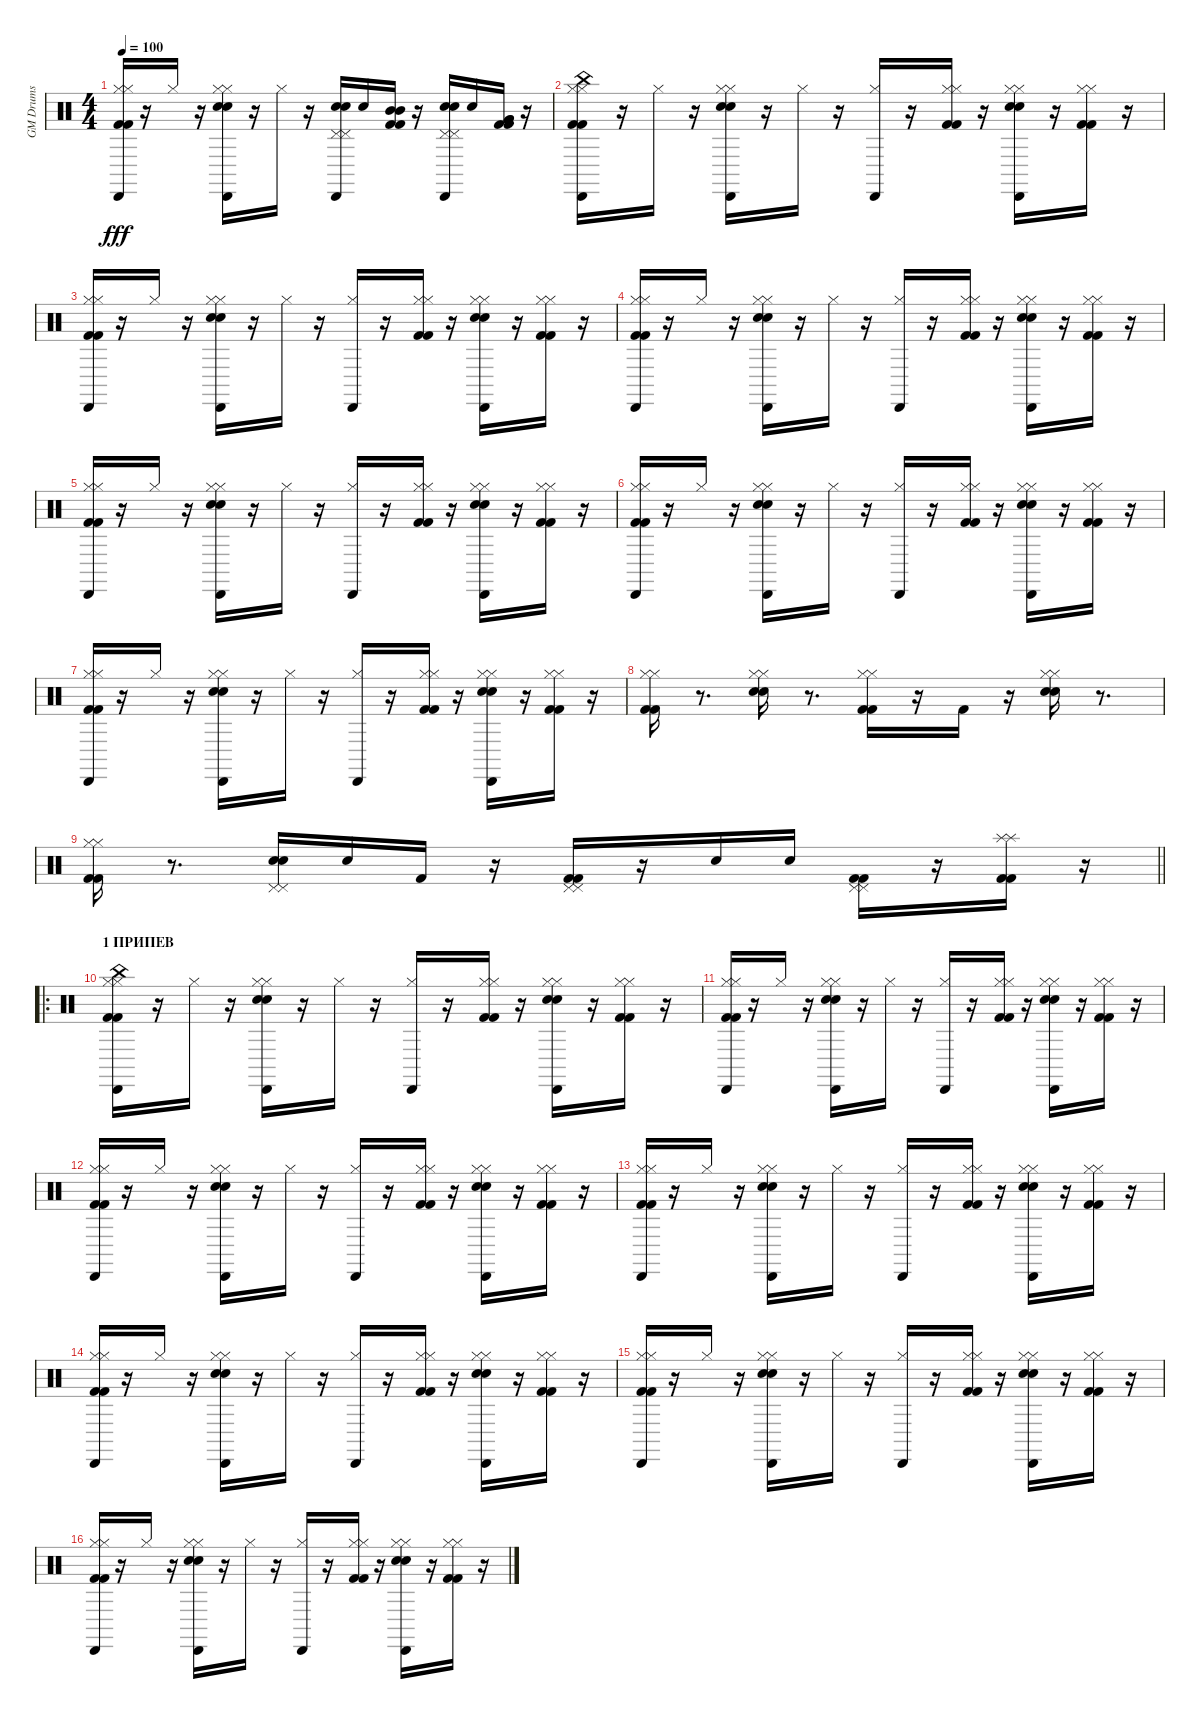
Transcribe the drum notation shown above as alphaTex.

\track ("GM Drums" "GM Drums") {instrument percussion}
\staff {score}
\articulation defaults
\ts (4 4)
\tempo 100
\clef neutral
\ks c
("Kick (hit) 2" "Kick (hit) 2" "Hi-Hat (closed)" "Hi-Hat (closed)" "Cabasa (hit)").16{dy fff} r.16 "Hi-Hat (closed)".16 r.16 ("Snare (hit) 2" "Snare (hit) 2" "Hi-Hat (closed)" "Hi-Hat (closed)" "Cabasa (hit)").16 r.16 "Hi-Hat (closed)".16 r.16 ("Snare (hit) 2" "Snare (hit) 2" "Pedal Hi-Hat (hit)" "Pedal Hi-Hat (hit)" "Cabasa (hit)").16 "Snare (hit) 2".16 ("Kick (hit) 2" "Kick (hit) 2" "Mid Tom (hit)" "Mid Tom (hit)").16 r.16 ("Snare (hit) 2" "Snare (hit) 2" "Pedal Hi-Hat (hit)" "Pedal Hi-Hat (hit)" "Cabasa (hit)").16 "Snare (hit) 2".16 ("Kick (hit) 2" "Kick (hit) 2" "Very Low Tom (hit)" "Very Low Tom (hit)").16 r.16 |
("Kick (hit) 2" "Kick (hit) 2" "Hi-Hat (closed)" "Hi-Hat (closed)" "China (hit)" "Cabasa (hit)").16 r.16 "Hi-Hat (closed)".16 r.16 ("Snare (hit) 2" "Snare (hit) 2" "Hi-Hat (closed)" "Hi-Hat (closed)" "Cabasa (hit)").16 r.16 "Hi-Hat (closed)".16 r.16 ("Hi-Hat (closed)" "Cabasa (hit)").16 r.16 ("Kick (hit) 2" "Kick (hit) 2" "Hi-Hat (closed)" "Hi-Hat (closed)").16 r.16 ("Snare (hit) 2" "Snare (hit) 2" "Hi-Hat (closed)" "Hi-Hat (closed)" "Cabasa (hit)").16 r.16 ("Kick (hit) 2" "Kick (hit) 2" "Hi-Hat (closed)" "Hi-Hat (closed)").16 r.16 |
("Kick (hit) 2" "Kick (hit) 2" "Hi-Hat (closed)" "Hi-Hat (closed)" "Cabasa (hit)").16 r.16 "Hi-Hat (closed)".16 r.16 ("Snare (hit) 2" "Snare (hit) 2" "Hi-Hat (closed)" "Hi-Hat (closed)" "Cabasa (hit)").16 r.16 "Hi-Hat (closed)".16 r.16 ("Hi-Hat (closed)" "Cabasa (hit)").16 r.16 ("Kick (hit) 2" "Kick (hit) 2" "Hi-Hat (closed)" "Hi-Hat (closed)").16 r.16 ("Snare (hit) 2" "Snare (hit) 2" "Hi-Hat (closed)" "Hi-Hat (closed)" "Cabasa (hit)").16 r.16 ("Kick (hit) 2" "Kick (hit) 2" "Hi-Hat (closed)" "Hi-Hat (closed)").16 r.16 |
("Kick (hit) 2" "Kick (hit) 2" "Hi-Hat (closed)" "Hi-Hat (closed)" "Cabasa (hit)").16 r.16 "Hi-Hat (closed)".16 r.16 ("Snare (hit) 2" "Snare (hit) 2" "Hi-Hat (closed)" "Hi-Hat (closed)" "Cabasa (hit)").16 r.16 "Hi-Hat (closed)".16 r.16 ("Hi-Hat (closed)" "Cabasa (hit)").16 r.16 ("Kick (hit) 2" "Kick (hit) 2" "Hi-Hat (closed)" "Hi-Hat (closed)").16 r.16 ("Snare (hit) 2" "Snare (hit) 2" "Hi-Hat (closed)" "Hi-Hat (closed)" "Cabasa (hit)").16 r.16 ("Kick (hit) 2" "Kick (hit) 2" "Hi-Hat (closed)" "Hi-Hat (closed)").16 r.16 |
("Kick (hit) 2" "Kick (hit) 2" "Hi-Hat (closed)" "Hi-Hat (closed)" "Cabasa (hit)").16 r.16 "Hi-Hat (closed)".16 r.16 ("Snare (hit) 2" "Snare (hit) 2" "Hi-Hat (closed)" "Hi-Hat (closed)" "Cabasa (hit)").16 r.16 "Hi-Hat (closed)".16 r.16 ("Hi-Hat (closed)" "Cabasa (hit)").16 r.16 ("Kick (hit) 2" "Kick (hit) 2" "Hi-Hat (closed)" "Hi-Hat (closed)").16 r.16 ("Snare (hit) 2" "Snare (hit) 2" "Hi-Hat (closed)" "Hi-Hat (closed)" "Cabasa (hit)").16 r.16 ("Kick (hit) 2" "Kick (hit) 2" "Hi-Hat (closed)" "Hi-Hat (closed)").16 r.16 |
("Kick (hit) 2" "Kick (hit) 2" "Hi-Hat (closed)" "Hi-Hat (closed)" "Cabasa (hit)").16 r.16 "Hi-Hat (closed)".16 r.16 ("Snare (hit) 2" "Snare (hit) 2" "Hi-Hat (closed)" "Hi-Hat (closed)" "Cabasa (hit)").16 r.16 "Hi-Hat (closed)".16 r.16 ("Hi-Hat (closed)" "Cabasa (hit)").16 r.16 ("Kick (hit) 2" "Kick (hit) 2" "Hi-Hat (closed)" "Hi-Hat (closed)").16 r.16 ("Snare (hit) 2" "Snare (hit) 2" "Hi-Hat (closed)" "Hi-Hat (closed)" "Cabasa (hit)").16 r.16 ("Kick (hit) 2" "Kick (hit) 2" "Hi-Hat (closed)" "Hi-Hat (closed)").16 r.16 |
("Kick (hit) 2" "Kick (hit) 2" "Hi-Hat (closed)" "Hi-Hat (closed)" "Cabasa (hit)").16 r.16 "Hi-Hat (closed)".16 r.16 ("Snare (hit) 2" "Snare (hit) 2" "Hi-Hat (closed)" "Hi-Hat (closed)" "Cabasa (hit)").16 r.16 "Hi-Hat (closed)".16 r.16 ("Hi-Hat (closed)" "Cabasa (hit)").16 r.16 ("Kick (hit) 2" "Kick (hit) 2" "Hi-Hat (closed)" "Hi-Hat (closed)").16 r.16 ("Snare (hit) 2" "Snare (hit) 2" "Hi-Hat (closed)" "Hi-Hat (closed)" "Cabasa (hit)").16 r.16 ("Kick (hit) 2" "Kick (hit) 2" "Hi-Hat (closed)" "Hi-Hat (closed)").16 r.16 |
("Kick (hit) 2" "Kick (hit) 2" "Hi-Hat (closed)" "Hi-Hat (closed)").16 r.8{d} ("Snare (hit) 2" "Snare (hit) 2" "Hi-Hat (closed)" "Hi-Hat (closed)").16 r.8{d} ("Kick (hit) 2" "Kick (hit) 2" "Hi-Hat (closed)" "Hi-Hat (closed)").16 r.16 "Kick (hit) 2".16 r.16 ("Snare (hit) 2" "Snare (hit) 2" "Hi-Hat (closed)" "Hi-Hat (closed)").16 r.8{d} |
\barLineRight lightlight
("Kick (hit) 2" "Kick (hit) 2" "Hi-Hat (closed)" "Hi-Hat (closed)").16 r.8{d} ("Snare (hit) 2" "Snare (hit) 2" "Pedal Hi-Hat (hit)" "Pedal Hi-Hat (hit)").16 "Snare (hit) 2".16 "Kick (hit) 2".16 r.16 ("Kick (hit) 2" "Kick (hit) 2" "Pedal Hi-Hat (hit)" "Pedal Hi-Hat (hit)").16 r.16 "Snare (hit) 2".16 "Snare (hit) 2".16 ("Kick (hit) 2" "Kick (hit) 2" "Pedal Hi-Hat (hit)" "Pedal Hi-Hat (hit)").16 r.16 ("Kick (hit) 2" "Kick (hit) 2" "Splash (hit)" "Splash (hit)").16 r.16 |
\ro
\section ("" "1 ПРИПЕВ")
("Kick (hit) 2" "Kick (hit) 2" "Hi-Hat (closed)" "Hi-Hat (closed)" "China (hit)" "Cabasa (hit)").16 r.16 "Hi-Hat (closed)".16 r.16 ("Snare (hit) 2" "Snare (hit) 2" "Hi-Hat (closed)" "Hi-Hat (closed)" "Cabasa (hit)").16 r.16 "Hi-Hat (closed)".16 r.16 ("Hi-Hat (closed)" "Cabasa (hit)").16 r.16 ("Kick (hit) 2" "Kick (hit) 2" "Hi-Hat (closed)" "Hi-Hat (closed)").16 r.16 ("Snare (hit) 2" "Snare (hit) 2" "Hi-Hat (closed)" "Hi-Hat (closed)" "Cabasa (hit)").16 r.16 ("Kick (hit) 2" "Kick (hit) 2" "Hi-Hat (closed)" "Hi-Hat (closed)").16 r.16 |
("Kick (hit) 2" "Kick (hit) 2" "Hi-Hat (closed)" "Hi-Hat (closed)" "Cabasa (hit)").16 r.16 "Hi-Hat (closed)".16 r.16 ("Snare (hit) 2" "Snare (hit) 2" "Hi-Hat (closed)" "Hi-Hat (closed)" "Cabasa (hit)").16 r.16 "Hi-Hat (closed)".16 r.16 ("Hi-Hat (closed)" "Cabasa (hit)").16 r.16 ("Kick (hit) 2" "Kick (hit) 2" "Hi-Hat (closed)" "Hi-Hat (closed)").16 r.16 ("Snare (hit) 2" "Snare (hit) 2" "Hi-Hat (closed)" "Hi-Hat (closed)" "Cabasa (hit)").16 r.16 ("Kick (hit) 2" "Kick (hit) 2" "Hi-Hat (closed)" "Hi-Hat (closed)").16 r.16 |
("Kick (hit) 2" "Kick (hit) 2" "Hi-Hat (closed)" "Hi-Hat (closed)" "Cabasa (hit)").16 r.16 "Hi-Hat (closed)".16 r.16 ("Snare (hit) 2" "Snare (hit) 2" "Hi-Hat (closed)" "Hi-Hat (closed)" "Cabasa (hit)").16 r.16 "Hi-Hat (closed)".16 r.16 ("Hi-Hat (closed)" "Cabasa (hit)").16 r.16 ("Kick (hit) 2" "Kick (hit) 2" "Hi-Hat (closed)" "Hi-Hat (closed)").16 r.16 ("Snare (hit) 2" "Snare (hit) 2" "Hi-Hat (closed)" "Hi-Hat (closed)" "Cabasa (hit)").16 r.16 ("Kick (hit) 2" "Kick (hit) 2" "Hi-Hat (closed)" "Hi-Hat (closed)").16 r.16 |
("Kick (hit) 2" "Kick (hit) 2" "Hi-Hat (closed)" "Hi-Hat (closed)" "Cabasa (hit)").16 r.16 "Hi-Hat (closed)".16 r.16 ("Snare (hit) 2" "Snare (hit) 2" "Hi-Hat (closed)" "Hi-Hat (closed)" "Cabasa (hit)").16 r.16 "Hi-Hat (closed)".16 r.16 ("Hi-Hat (closed)" "Cabasa (hit)").16 r.16 ("Kick (hit) 2" "Kick (hit) 2" "Hi-Hat (closed)" "Hi-Hat (closed)").16 r.16 ("Snare (hit) 2" "Snare (hit) 2" "Hi-Hat (closed)" "Hi-Hat (closed)" "Cabasa (hit)").16 r.16 ("Kick (hit) 2" "Kick (hit) 2" "Hi-Hat (closed)" "Hi-Hat (closed)").16 r.16 |
("Kick (hit) 2" "Kick (hit) 2" "Hi-Hat (closed)" "Hi-Hat (closed)" "Cabasa (hit)").16 r.16 "Hi-Hat (closed)".16 r.16 ("Snare (hit) 2" "Snare (hit) 2" "Hi-Hat (closed)" "Hi-Hat (closed)" "Cabasa (hit)").16 r.16 "Hi-Hat (closed)".16 r.16 ("Hi-Hat (closed)" "Cabasa (hit)").16 r.16 ("Kick (hit) 2" "Kick (hit) 2" "Hi-Hat (closed)" "Hi-Hat (closed)").16 r.16 ("Snare (hit) 2" "Snare (hit) 2" "Hi-Hat (closed)" "Hi-Hat (closed)" "Cabasa (hit)").16 r.16 ("Kick (hit) 2" "Kick (hit) 2" "Hi-Hat (closed)" "Hi-Hat (closed)").16 r.16 |
("Kick (hit) 2" "Kick (hit) 2" "Hi-Hat (closed)" "Hi-Hat (closed)" "Cabasa (hit)").16 r.16 "Hi-Hat (closed)".16 r.16 ("Snare (hit) 2" "Snare (hit) 2" "Hi-Hat (closed)" "Hi-Hat (closed)" "Cabasa (hit)").16 r.16 "Hi-Hat (closed)".16 r.16 ("Hi-Hat (closed)" "Cabasa (hit)").16 r.16 ("Kick (hit) 2" "Kick (hit) 2" "Hi-Hat (closed)" "Hi-Hat (closed)").16 r.16 ("Snare (hit) 2" "Snare (hit) 2" "Hi-Hat (closed)" "Hi-Hat (closed)" "Cabasa (hit)").16 r.16 ("Kick (hit) 2" "Kick (hit) 2" "Hi-Hat (closed)" "Hi-Hat (closed)").16 r.16 |
("Kick (hit) 2" "Kick (hit) 2" "Hi-Hat (closed)" "Hi-Hat (closed)" "Cabasa (hit)").16 r.16 "Hi-Hat (closed)".16 r.16 ("Snare (hit) 2" "Snare (hit) 2" "Hi-Hat (closed)" "Hi-Hat (closed)" "Cabasa (hit)").16 r.16 "Hi-Hat (closed)".16 r.16 ("Hi-Hat (closed)" "Cabasa (hit)").16 r.16 ("Kick (hit) 2" "Kick (hit) 2" "Hi-Hat (closed)" "Hi-Hat (closed)").16 r.16 ("Snare (hit) 2" "Snare (hit) 2" "Hi-Hat (closed)" "Hi-Hat (closed)" "Cabasa (hit)").16 r.16 ("Kick (hit) 2" "Kick (hit) 2" "Hi-Hat (closed)" "Hi-Hat (closed)").16 r.16
